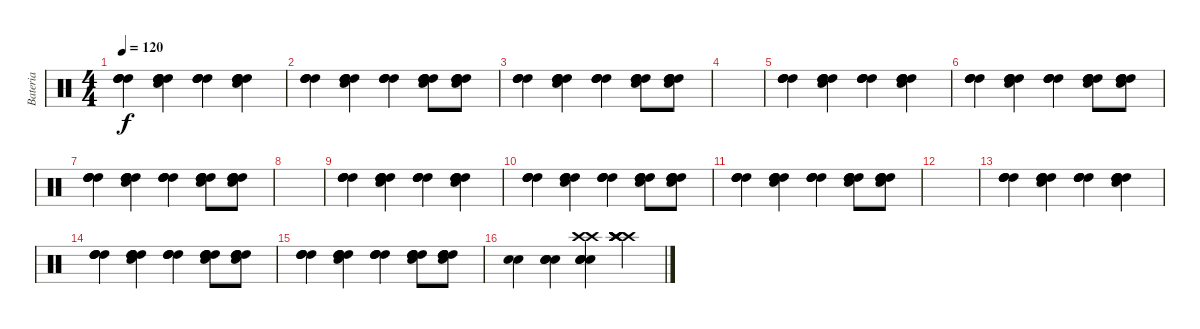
\track ("Bateria" "Bateria") {instrument percussion}
\staff {score}
\articulation defaults
\ts (4 4)
\tempo 120
\clef neutral
\ks c
("High Tom (hit)" "High Tom (hit)" "High Tom (hit)" "High Tom (hit)").4{dy f} ("Snare (hit) 2" "High Tom (hit)" "High Tom (hit)" "High Tom (hit)" "High Tom (hit)").4 ("High Tom (hit)" "High Tom (hit)" "High Tom (hit)" "High Tom (hit)").4 ("Snare (hit) 2" "High Tom (hit)" "High Tom (hit)" "High Tom (hit)" "High Tom (hit)").4 |
("High Tom (hit)" "High Tom (hit)" "High Tom (hit)" "High Tom (hit)").4 ("Snare (hit) 2" "High Tom (hit)" "High Tom (hit)" "High Tom (hit)" "High Tom (hit)").4 ("High Tom (hit)" "High Tom (hit)" "High Tom (hit)" "High Tom (hit)").4 ("Snare (hit) 2" "High Tom (hit)" "High Tom (hit)" "High Tom (hit)" "High Tom (hit)").8 ("Snare (hit) 2" "High Tom (hit)" "High Tom (hit)" "High Tom (hit)" "High Tom (hit)").8 |
("High Tom (hit)" "High Tom (hit)" "High Tom (hit)" "High Tom (hit)").4 ("Snare (hit) 2" "High Tom (hit)" "High Tom (hit)" "High Tom (hit)" "High Tom (hit)").4 ("High Tom (hit)" "High Tom (hit)" "High Tom (hit)" "High Tom (hit)").4 ("Snare (hit) 2" "High Tom (hit)" "High Tom (hit)" "High Tom (hit)" "High Tom (hit)").8 ("Snare (hit) 2" "High Tom (hit)" "High Tom (hit)" "High Tom (hit)" "High Tom (hit)").8 |
|
("High Tom (hit)" "High Tom (hit)" "High Tom (hit)" "High Tom (hit)").4 ("Snare (hit) 2" "High Tom (hit)" "High Tom (hit)" "High Tom (hit)" "High Tom (hit)").4 ("High Tom (hit)" "High Tom (hit)" "High Tom (hit)" "High Tom (hit)").4 ("Snare (hit) 2" "High Tom (hit)" "High Tom (hit)" "High Tom (hit)" "High Tom (hit)").4 |
("High Tom (hit)" "High Tom (hit)" "High Tom (hit)" "High Tom (hit)").4 ("Snare (hit) 2" "High Tom (hit)" "High Tom (hit)" "High Tom (hit)" "High Tom (hit)").4 ("High Tom (hit)" "High Tom (hit)" "High Tom (hit)" "High Tom (hit)").4 ("Snare (hit) 2" "High Tom (hit)" "High Tom (hit)" "High Tom (hit)" "High Tom (hit)").8 ("Snare (hit) 2" "High Tom (hit)" "High Tom (hit)" "High Tom (hit)" "High Tom (hit)").8 |
("High Tom (hit)" "High Tom (hit)" "High Tom (hit)" "High Tom (hit)").4 ("Snare (hit) 2" "High Tom (hit)" "High Tom (hit)" "High Tom (hit)" "High Tom (hit)").4 ("High Tom (hit)" "High Tom (hit)" "High Tom (hit)" "High Tom (hit)").4 ("Snare (hit) 2" "High Tom (hit)" "High Tom (hit)" "High Tom (hit)" "High Tom (hit)").8 ("Snare (hit) 2" "High Tom (hit)" "High Tom (hit)" "High Tom (hit)" "High Tom (hit)").8 |
|
("High Tom (hit)" "High Tom (hit)" "High Tom (hit)" "High Tom (hit)").4 ("Snare (hit) 2" "High Tom (hit)" "High Tom (hit)" "High Tom (hit)" "High Tom (hit)").4 ("High Tom (hit)" "High Tom (hit)" "High Tom (hit)" "High Tom (hit)").4 ("Snare (hit) 2" "High Tom (hit)" "High Tom (hit)" "High Tom (hit)" "High Tom (hit)").4 |
("High Tom (hit)" "High Tom (hit)" "High Tom (hit)" "High Tom (hit)").4 ("Snare (hit) 2" "High Tom (hit)" "High Tom (hit)" "High Tom (hit)" "High Tom (hit)").4 ("High Tom (hit)" "High Tom (hit)" "High Tom (hit)" "High Tom (hit)").4 ("Snare (hit) 2" "High Tom (hit)" "High Tom (hit)" "High Tom (hit)" "High Tom (hit)").8 ("Snare (hit) 2" "High Tom (hit)" "High Tom (hit)" "High Tom (hit)" "High Tom (hit)").8 |
("High Tom (hit)" "High Tom (hit)" "High Tom (hit)" "High Tom (hit)").4 ("Snare (hit) 2" "High Tom (hit)" "High Tom (hit)" "High Tom (hit)" "High Tom (hit)").4 ("High Tom (hit)" "High Tom (hit)" "High Tom (hit)" "High Tom (hit)").4 ("Snare (hit) 2" "High Tom (hit)" "High Tom (hit)" "High Tom (hit)" "High Tom (hit)").8 ("Snare (hit) 2" "High Tom (hit)" "High Tom (hit)" "High Tom (hit)" "High Tom (hit)").8 |
|
("High Tom (hit)" "High Tom (hit)" "High Tom (hit)" "High Tom (hit)").4 ("Snare (hit) 2" "High Tom (hit)" "High Tom (hit)" "High Tom (hit)" "High Tom (hit)").4 ("High Tom (hit)" "High Tom (hit)" "High Tom (hit)" "High Tom (hit)").4 ("Snare (hit) 2" "High Tom (hit)" "High Tom (hit)" "High Tom (hit)" "High Tom (hit)").4 |
("High Tom (hit)" "High Tom (hit)" "High Tom (hit)" "High Tom (hit)").4 ("Snare (hit) 2" "High Tom (hit)" "High Tom (hit)" "High Tom (hit)" "High Tom (hit)").4 ("High Tom (hit)" "High Tom (hit)" "High Tom (hit)" "High Tom (hit)").4 ("Snare (hit) 2" "High Tom (hit)" "High Tom (hit)" "High Tom (hit)" "High Tom (hit)").8 ("Snare (hit) 2" "High Tom (hit)" "High Tom (hit)" "High Tom (hit)" "High Tom (hit)").8 |
("High Tom (hit)" "High Tom (hit)" "High Tom (hit)" "High Tom (hit)").4 ("Snare (hit) 2" "High Tom (hit)" "High Tom (hit)" "High Tom (hit)" "High Tom (hit)").4 ("High Tom (hit)" "High Tom (hit)" "High Tom (hit)" "High Tom (hit)").4 ("Snare (hit) 2" "High Tom (hit)" "High Tom (hit)" "High Tom (hit)" "High Tom (hit)").8 ("Snare (hit) 2" "High Tom (hit)" "High Tom (hit)" "High Tom (hit)" "High Tom (hit)").8 |
("Snare (hit) 2" "Snare (hit) 2").4 ("Snare (hit) 2" "Snare (hit) 2" "Snare (hit) 2" "Snare (hit) 2").4 ("Crash high (hit)" "Snare (hit) 2" "Snare (hit) 2" "Snare (hit) 2" "Snare (hit) 2" "Crash high (hit)").4 ("Crash high (hit)" "Crash high (hit)" "Crash high (hit)" "Crash high (hit)" "Crash high (hit)" "Crash high (hit)").4
